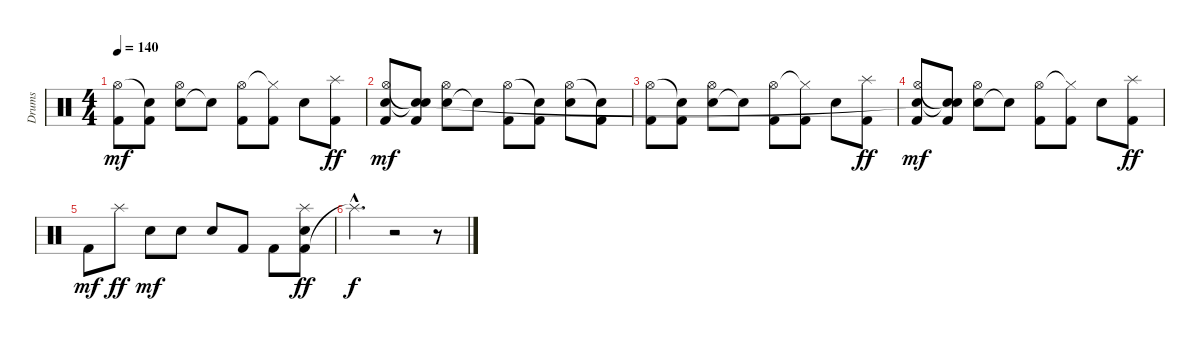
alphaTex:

\track ("Drums" "Drums") {instrument percussion}
\staff {score}
\articulation defaults
\ts (4 4)
\tempo 140
\clef neutral
\ks c
("Kick (hit) 2" "Hi-Hat (open)").8{dy mf} ("Kick (hit) 2" "Snare (hit)"{t}).8 ("Snare (hit) 2" "Hi-Hat (open)").8 "Snare (hit)"{t}.8 ("Kick (hit) 2" "Hi-Hat (open)").8 ("Kick (hit) 2" "Hi-Hat (closed)"{t}).8 "Snare (hit) 2".8 ("Kick (hit) 2" "Splash (hit)").8{dy ff} |
("Kick (hit) 2" "Hi-Hat (open)" "Snare (hit)").8{dy mf} ("Kick (hit) 2" "Snare (hit)"{t} "Snare (hit)"{t}).8 ("Snare (hit) 2" "Hi-Hat (open)").8 "Snare (hit)"{t}.8 ("Kick (hit) 2" "Hi-Hat (open)").8 ("Kick (hit) 2" "Snare (hit)"{t}).8 ("Snare (hit) 2" "Hi-Hat (open)").8 ("Kick (hit) 2" "Snare (hit)"{t}).8 |
("Kick (hit) 2" "Hi-Hat (open)").8 ("Kick (hit) 2" "Snare (hit)"{t}).8 ("Snare (hit) 2" "Hi-Hat (open)").8 "Snare (hit)"{t}.8 ("Kick (hit) 2" "Hi-Hat (open)").8 ("Kick (hit) 2" "Hi-Hat (closed)"{t}).8 "Snare (hit) 2".8 ("Kick (hit) 2" "Splash (hit)").8{dy ff} |
("Kick (hit) 2" "Hi-Hat (open)" "Snare (hit)"{t}).8{dy mf} ("Kick (hit) 2" "Snare (hit)"{t} "Snare (hit)"{t}).8 ("Snare (hit) 2" "Hi-Hat (open)").8 "Snare (hit)"{t}.8 ("Kick (hit) 2" "Hi-Hat (open)").8 ("Kick (hit) 2" "Hi-Hat (closed)"{t}).8 "Snare (hit) 2".8 ("Kick (hit) 2" "Splash (hit)").8{dy ff} |
"Kick (hit) 2".8{dy mf} "Splash (hit)".8{dy ff} "Snare (hit) 2".8{dy mf} "Snare (hit) 2".8 "Snare (hit) 2".8 "Kick (hit) 2".8 "Kick (hit) 2".8 ("Kick (hit) 2" "Snare (hit) 2" "Splash (hit)").8{dy ff} |
"Splash (hit)"{hac t}.4{d dy f} r.2 r.8
